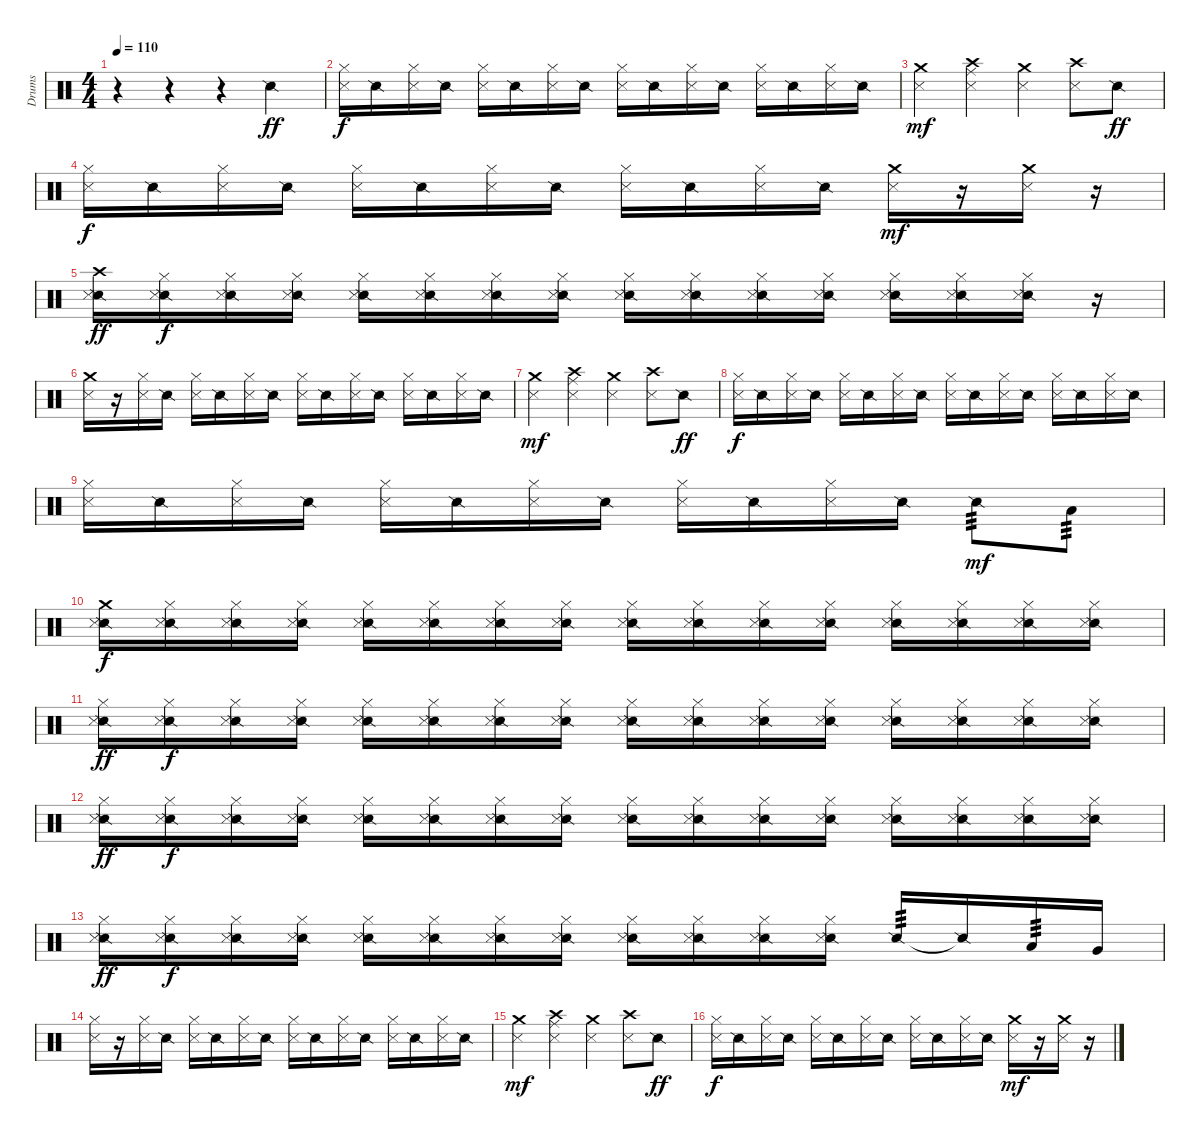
\track ("Drums" "Drums") {instrument percussion}
\staff {score}
\articulation defaults
\ts (4 4)
\tempo 110
\clef neutral
\ks c
r.4{dy ff} r.4 r.4 "Snare (side stick) 2".4 |
("Metronome (hit)" "Hi-Hat (closed)").16{dy f} "Snare (side stick) 2".16 ("Metronome (hit)" "Hi-Hat (closed)").16 "Snare (side stick) 2".16 ("Metronome (hit)" "Hi-Hat (closed)").16 "Snare (side stick) 2".16 ("Metronome (hit)" "Hi-Hat (closed)").16 "Snare (side stick) 2".16 ("Metronome (hit)" "Hi-Hat (closed)").16 "Snare (side stick) 2".16 ("Metronome (hit)" "Hi-Hat (closed)").16 "Snare (side stick) 2".16 ("Metronome (hit)" "Hi-Hat (closed)").16 "Snare (side stick) 2".16 ("Metronome (hit)" "Hi-Hat (closed)").16 "Snare (side stick) 2".16 |
("Metronome (hit)" "Crash medium (hit)").4{dy mf} ("Metronome (hit)" "Crash high (hit)" "Ride (middle)").4 ("Metronome (hit)" "Crash medium (hit)").4 ("Metronome (hit)" "Crash high (hit)").8 "Snare (side stick) 2".8{dy ff} |
("Metronome (hit)" "Hi-Hat (closed)").16{dy f} "Snare (side stick) 2".16 ("Metronome (hit)" "Hi-Hat (closed)").16 "Snare (side stick) 2".16 ("Metronome (hit)" "Hi-Hat (closed)").16 "Snare (side stick) 2".16 ("Metronome (hit)" "Hi-Hat (closed)").16 "Snare (side stick) 2".16 ("Metronome (hit)" "Hi-Hat (closed)").16 "Snare (side stick) 2".16 ("Metronome (hit)" "Hi-Hat (closed)").16 "Snare (side stick) 2".16 ("Crash medium (hit)" "Metronome (hit)").16{dy mf} r.16 ("Crash medium (hit)" "Metronome (hit)").16 r.16 |
("Crash high (hit)" "Snare (side stick) 2" "Metronome (hit)").16{dy ff} ("Hi-Hat (closed)" "Snare (side stick) 2" "Metronome (hit)").16{dy f} ("Hi-Hat (closed)" "Snare (side stick) 2" "Metronome (hit)").16 ("Hi-Hat (closed)" "Snare (side stick) 2" "Metronome (hit)").16 ("Hi-Hat (closed)" "Snare (side stick) 2" "Metronome (hit)").16 ("Hi-Hat (closed)" "Snare (side stick) 2" "Metronome (hit)").16 ("Hi-Hat (closed)" "Snare (side stick) 2" "Metronome (hit)").16 ("Hi-Hat (closed)" "Snare (side stick) 2" "Metronome (hit)").16 ("Hi-Hat (closed)" "Snare (side stick) 2" "Metronome (hit)").16 ("Hi-Hat (closed)" "Snare (side stick) 2" "Metronome (hit)").16 ("Hi-Hat (closed)" "Snare (side stick) 2" "Metronome (hit)").16 ("Hi-Hat (closed)" "Snare (side stick) 2" "Metronome (hit)").16 ("Hi-Hat (closed)" "Snare (side stick) 2" "Metronome (hit)").16 ("Hi-Hat (closed)" "Snare (side stick) 2" "Metronome (hit)").16 ("Hi-Hat (closed)" "Snare (side stick) 2" "Metronome (hit)").16 r.16 |
("Crash medium (hit)" "Metronome (hit)").16 r.16 ("Metronome (hit)" "Hi-Hat (closed)").16 "Snare (side stick) 2".16 ("Metronome (hit)" "Hi-Hat (closed)").16 "Snare (side stick) 2".16 ("Metronome (hit)" "Hi-Hat (closed)").16 "Snare (side stick) 2".16 ("Metronome (hit)" "Hi-Hat (closed)").16 "Snare (side stick) 2".16 ("Metronome (hit)" "Hi-Hat (closed)").16 "Snare (side stick) 2".16 ("Metronome (hit)" "Hi-Hat (closed)").16 "Snare (side stick) 2".16 ("Metronome (hit)" "Hi-Hat (closed)").16 "Snare (side stick) 2".16 |
("Metronome (hit)" "Crash medium (hit)").4{dy mf} ("Metronome (hit)" "Crash high (hit)" "Ride (middle)").4 ("Metronome (hit)" "Crash medium (hit)").4 ("Metronome (hit)" "Crash high (hit)").8 "Snare (side stick) 2".8{dy ff} |
("Metronome (hit)" "Hi-Hat (closed)").16{dy f} "Snare (side stick) 2".16 ("Metronome (hit)" "Hi-Hat (closed)").16 "Snare (side stick) 2".16 ("Metronome (hit)" "Hi-Hat (closed)").16 "Snare (side stick) 2".16 ("Metronome (hit)" "Hi-Hat (closed)").16 "Snare (side stick) 2".16 ("Metronome (hit)" "Hi-Hat (closed)").16 "Snare (side stick) 2".16 ("Metronome (hit)" "Hi-Hat (closed)").16 "Snare (side stick) 2".16 ("Metronome (hit)" "Hi-Hat (closed)").16 "Snare (side stick) 2".16 ("Metronome (hit)" "Hi-Hat (closed)").16 "Snare (side stick) 2".16 |
("Metronome (hit)" "Hi-Hat (closed)").16 "Snare (side stick) 2".16 ("Metronome (hit)" "Hi-Hat (closed)").16 "Snare (side stick) 2".16 ("Metronome (hit)" "Hi-Hat (closed)").16 "Snare (side stick) 2".16 ("Metronome (hit)" "Hi-Hat (closed)").16 "Snare (side stick) 2".16 ("Metronome (hit)" "Hi-Hat (closed)").16 "Snare (side stick) 2".16 ("Metronome (hit)" "Hi-Hat (closed)").16 "Snare (side stick) 2".16 "Snare (side stick) 2".8{tp 3 dy mf} "Low Tom (hit)".8{tp 3} |
("Crash medium (hit)" "Snare (side stick) 2" "Metronome (hit)").16{dy f} ("Hi-Hat (closed)" "Snare (side stick) 2" "Metronome (hit)").16 ("Hi-Hat (closed)" "Snare (side stick) 2" "Metronome (hit)").16 ("Hi-Hat (closed)" "Snare (side stick) 2" "Metronome (hit)").16 ("Hi-Hat (closed)" "Snare (side stick) 2" "Metronome (hit)").16 ("Hi-Hat (closed)" "Snare (side stick) 2" "Metronome (hit)").16 ("Hi-Hat (closed)" "Snare (side stick) 2" "Metronome (hit)").16 ("Hi-Hat (closed)" "Snare (side stick) 2" "Metronome (hit)").16 ("Hi-Hat (closed)" "Snare (side stick) 2" "Metronome (hit)").16 ("Hi-Hat (closed)" "Snare (side stick) 2" "Metronome (hit)").16 ("Hi-Hat (closed)" "Snare (side stick) 2" "Metronome (hit)").16 ("Hi-Hat (closed)" "Snare (side stick) 2" "Metronome (hit)").16 ("Hi-Hat (closed)" "Snare (side stick) 2" "Metronome (hit)").16 ("Hi-Hat (closed)" "Snare (side stick) 2" "Metronome (hit)").16 ("Hi-Hat (closed)" "Snare (side stick) 2" "Metronome (hit)").16 ("Hi-Hat (closed)" "Snare (side stick) 2" "Metronome (hit)").16 |
("Hi-Hat (closed)" "Snare (side stick) 2" "Metronome (hit)").16{dy ff} ("Hi-Hat (closed)" "Snare (side stick) 2" "Metronome (hit)").16{dy f} ("Hi-Hat (closed)" "Snare (side stick) 2" "Metronome (hit)").16 ("Hi-Hat (closed)" "Snare (side stick) 2" "Metronome (hit)").16 ("Hi-Hat (closed)" "Snare (side stick) 2" "Metronome (hit)").16 ("Hi-Hat (closed)" "Snare (side stick) 2" "Metronome (hit)").16 ("Hi-Hat (closed)" "Snare (side stick) 2" "Metronome (hit)").16 ("Hi-Hat (closed)" "Snare (side stick) 2" "Metronome (hit)").16 ("Hi-Hat (closed)" "Snare (side stick) 2" "Metronome (hit)").16 ("Hi-Hat (closed)" "Snare (side stick) 2" "Metronome (hit)").16 ("Hi-Hat (closed)" "Snare (side stick) 2" "Metronome (hit)").16 ("Hi-Hat (closed)" "Snare (side stick) 2" "Metronome (hit)").16 ("Hi-Hat (closed)" "Snare (side stick) 2" "Metronome (hit)").16 ("Hi-Hat (closed)" "Snare (side stick) 2" "Metronome (hit)").16 ("Hi-Hat (closed)" "Snare (side stick) 2" "Metronome (hit)").16 ("Hi-Hat (closed)" "Snare (side stick) 2" "Metronome (hit)").16 |
("Hi-Hat (closed)" "Snare (side stick) 2" "Metronome (hit)").16{dy ff} ("Hi-Hat (closed)" "Snare (side stick) 2" "Metronome (hit)").16{dy f} ("Hi-Hat (closed)" "Snare (side stick) 2" "Metronome (hit)").16 ("Hi-Hat (closed)" "Snare (side stick) 2" "Metronome (hit)").16 ("Hi-Hat (closed)" "Snare (side stick) 2" "Metronome (hit)").16 ("Hi-Hat (closed)" "Snare (side stick) 2" "Metronome (hit)").16 ("Hi-Hat (closed)" "Snare (side stick) 2" "Metronome (hit)").16 ("Hi-Hat (closed)" "Snare (side stick) 2" "Metronome (hit)").16 ("Hi-Hat (closed)" "Snare (side stick) 2" "Metronome (hit)").16 ("Hi-Hat (closed)" "Snare (side stick) 2" "Metronome (hit)").16 ("Hi-Hat (closed)" "Snare (side stick) 2" "Metronome (hit)").16 ("Hi-Hat (closed)" "Snare (side stick) 2" "Metronome (hit)").16 ("Hi-Hat (closed)" "Snare (side stick) 2" "Metronome (hit)").16 ("Hi-Hat (closed)" "Snare (side stick) 2" "Metronome (hit)").16 ("Hi-Hat (closed)" "Snare (side stick) 2" "Metronome (hit)").16 ("Hi-Hat (closed)" "Snare (side stick) 2" "Metronome (hit)").16 |
("Hi-Hat (closed)" "Snare (side stick) 2" "Metronome (hit)").16{dy ff} ("Hi-Hat (closed)" "Snare (side stick) 2" "Metronome (hit)").16{dy f} ("Hi-Hat (closed)" "Snare (side stick) 2" "Metronome (hit)").16 ("Hi-Hat (closed)" "Snare (side stick) 2" "Metronome (hit)").16 ("Hi-Hat (closed)" "Snare (side stick) 2" "Metronome (hit)").16 ("Hi-Hat (closed)" "Snare (side stick) 2" "Metronome (hit)").16 ("Hi-Hat (closed)" "Snare (side stick) 2" "Metronome (hit)").16 ("Hi-Hat (closed)" "Snare (side stick) 2" "Metronome (hit)").16 ("Hi-Hat (closed)" "Snare (side stick) 2" "Metronome (hit)").16 ("Hi-Hat (closed)" "Snare (side stick) 2" "Metronome (hit)").16 ("Hi-Hat (closed)" "Snare (side stick) 2" "Metronome (hit)").16 ("Hi-Hat (closed)" "Snare (side stick) 2" "Metronome (hit)").16 "Snare (side stick) 2".16{tp 3} "Snare (side stick) 2"{t}.16 "Low Tom (hit)".16{tp 3} "Very Low Tom (hit)".16 |
("Metronome (hit)" "Hi-Hat (closed)").16 r.16 ("Metronome (hit)" "Hi-Hat (closed)").16 "Snare (side stick) 2".16 ("Metronome (hit)" "Hi-Hat (closed)").16 "Snare (side stick) 2".16 ("Metronome (hit)" "Hi-Hat (closed)").16 "Snare (side stick) 2".16 ("Metronome (hit)" "Hi-Hat (closed)").16 "Snare (side stick) 2".16 ("Metronome (hit)" "Hi-Hat (closed)").16 "Snare (side stick) 2".16 ("Metronome (hit)" "Hi-Hat (closed)").16 "Snare (side stick) 2".16 ("Metronome (hit)" "Hi-Hat (closed)").16 "Snare (side stick) 2".16 |
("Metronome (hit)" "Crash medium (hit)").4{dy mf} ("Metronome (hit)" "Crash high (hit)" "Ride (middle)").4 ("Metronome (hit)" "Crash medium (hit)").4 ("Metronome (hit)" "Crash high (hit)").8 "Snare (side stick) 2".8{dy ff} |
("Metronome (hit)" "Hi-Hat (closed)").16{dy f} "Snare (side stick) 2".16 ("Metronome (hit)" "Hi-Hat (closed)").16 "Snare (side stick) 2".16 ("Metronome (hit)" "Hi-Hat (closed)").16 "Snare (side stick) 2".16 ("Metronome (hit)" "Hi-Hat (closed)").16 "Snare (side stick) 2".16 ("Metronome (hit)" "Hi-Hat (closed)").16 "Snare (side stick) 2".16 ("Metronome (hit)" "Hi-Hat (closed)").16 "Snare (side stick) 2".16 ("Crash medium (hit)" "Metronome (hit)").16{dy mf} r.16 ("Crash medium (hit)" "Metronome (hit)").16 r.16
